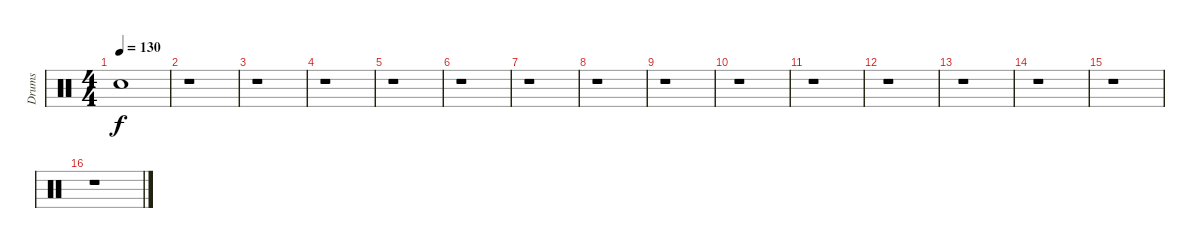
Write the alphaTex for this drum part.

\track ("Drums" "Drums") {instrument percussion}
\staff {score}
\articulation defaults
\ts (4 4)
\tempo 130
\clef neutral
\ks c "Snare (hit)"{t}.1{dy f}
|
r.1 |
r.1 |
r.1 |
r.1 |
r.1 |
r.1 |
r.1 |
r.1 |
r.1 |
r.1 |
r.1 |
r.1 |
r.1 |
r.1 |
r.1
